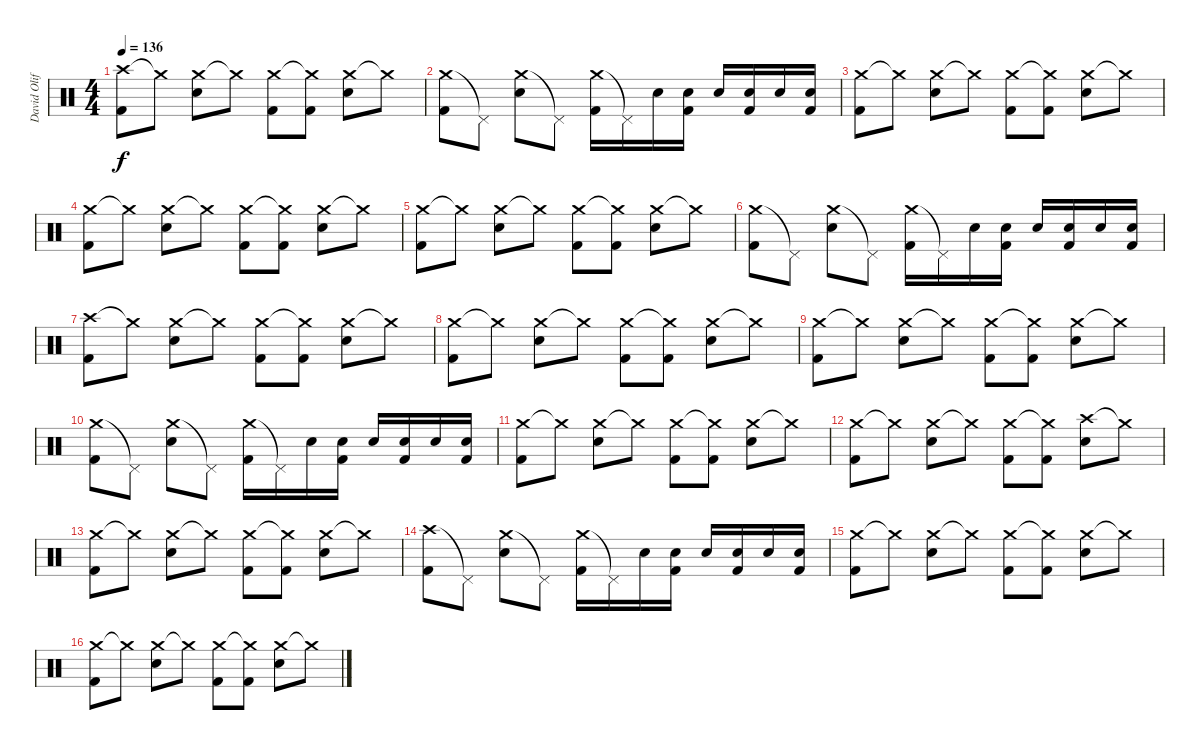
\track ("David Oliffe" "David Olif") {instrument percussion}
\staff {score}
\articulation defaults
\ts (4 4)
\tempo 136
\clef neutral
\ks c
("Crash high (hit)" "Kick (hit) 2").8{dy f} "Crash medium (hit)"{t}.8 ("Crash medium (hit)" "Electric Snare (hit)").8 "Crash medium (hit)"{t}.8 ("Crash medium (hit)" "Kick (hit) 2").8 ("Crash medium (hit)"{t} "Kick (hit) 2").8 ("Crash medium (hit)" "Electric Snare (hit)").8 "Crash medium (hit)"{t}.8 |
("Crash medium (hit)" "Kick (hit) 2").8 "Pedal Hi-Hat (hit)"{t}.8 ("Crash medium (hit)" "Electric Snare (hit)").8 "Pedal Hi-Hat (hit)"{t}.8 ("Crash medium (hit)" "Kick (hit) 2").16 "Pedal Hi-Hat (hit)"{t}.16 "Electric Snare (hit)".16 ("Electric Snare (hit)" "Kick (hit) 2").16 "Electric Snare (hit)".16 ("Electric Snare (hit)" "Kick (hit) 2").16 "Electric Snare (hit)".16 ("Electric Snare (hit)" "Kick (hit) 2").16 |
("Crash medium (hit)" "Kick (hit) 2").8{volume 12} "Crash medium (hit)"{t}.8 ("Crash medium (hit)" "Electric Snare (hit)").8 "Crash medium (hit)"{t}.8 ("Crash medium (hit)" "Kick (hit) 2").8 ("Crash medium (hit)"{t} "Kick (hit) 2").8 ("Crash medium (hit)" "Electric Snare (hit)").8 "Crash medium (hit)"{t}.8 |
("Crash medium (hit)" "Kick (hit) 2").8 "Crash medium (hit)"{t}.8 ("Crash medium (hit)" "Electric Snare (hit)").8 "Crash medium (hit)"{t}.8 ("Crash medium (hit)" "Kick (hit) 2").8 ("Crash medium (hit)"{t} "Kick (hit) 2").8 ("Crash medium (hit)" "Electric Snare (hit)").8 "Crash medium (hit)"{t}.8 |
("Crash medium (hit)" "Kick (hit) 2").8 "Crash medium (hit)"{t}.8 ("Crash medium (hit)" "Electric Snare (hit)").8 "Crash medium (hit)"{t}.8 ("Crash medium (hit)" "Kick (hit) 2").8 ("Crash medium (hit)"{t} "Kick (hit) 2").8 ("Crash medium (hit)" "Electric Snare (hit)").8 "Crash medium (hit)"{t}.8 |
("Crash medium (hit)" "Kick (hit) 2").8 "Pedal Hi-Hat (hit)"{t}.8 ("Crash medium (hit)" "Electric Snare (hit)").8 "Pedal Hi-Hat (hit)"{t}.8 ("Crash medium (hit)" "Kick (hit) 2").16 "Pedal Hi-Hat (hit)"{t}.16 "Electric Snare (hit)".16 ("Electric Snare (hit)" "Kick (hit) 2").16 "Electric Snare (hit)".16 ("Electric Snare (hit)" "Kick (hit) 2").16 "Electric Snare (hit)".16 ("Electric Snare (hit)" "Kick (hit) 2").16 |
("Crash high (hit)" "Kick (hit) 2").8{volume 10} "Crash medium (hit)"{t}.8 ("Crash medium (hit)" "Electric Snare (hit)").8 "Crash medium (hit)"{t}.8 ("Crash medium (hit)" "Kick (hit) 2").8 ("Crash medium (hit)"{t} "Kick (hit) 2").8 ("Crash medium (hit)" "Electric Snare (hit)").8 "Crash medium (hit)"{t}.8 |
("Crash medium (hit)" "Kick (hit) 2").8 "Crash medium (hit)"{t}.8 ("Crash medium (hit)" "Electric Snare (hit)").8 "Crash medium (hit)"{t}.8 ("Crash medium (hit)" "Kick (hit) 2").8 ("Crash medium (hit)"{t} "Kick (hit) 2").8 ("Crash medium (hit)" "Electric Snare (hit)").8 "Crash medium (hit)"{t}.8 |
("Crash medium (hit)" "Kick (hit) 2").8 "Crash medium (hit)"{t}.8 ("Crash medium (hit)" "Electric Snare (hit)").8 "Crash medium (hit)"{t}.8 ("Crash medium (hit)" "Kick (hit) 2").8 ("Crash medium (hit)"{t} "Kick (hit) 2").8 ("Crash medium (hit)" "Electric Snare (hit)").8 "Crash medium (hit)"{t}.8 |
("Crash medium (hit)" "Kick (hit) 2").8 "Pedal Hi-Hat (hit)"{t}.8 ("Crash medium (hit)" "Electric Snare (hit)").8 "Pedal Hi-Hat (hit)"{t}.8 ("Crash medium (hit)" "Kick (hit) 2").16 "Pedal Hi-Hat (hit)"{t}.16 "Electric Snare (hit)".16 ("Electric Snare (hit)" "Kick (hit) 2").16 "Electric Snare (hit)".16 ("Electric Snare (hit)" "Kick (hit) 2").16 "Electric Snare (hit)".16 ("Electric Snare (hit)" "Kick (hit) 2").16 |
("Crash medium (hit)" "Kick (hit) 2").8{volume 8} "Crash medium (hit)"{t}.8 ("Crash medium (hit)" "Electric Snare (hit)").8 "Crash medium (hit)"{t}.8 ("Crash medium (hit)" "Kick (hit) 2").8 ("Crash medium (hit)"{t} "Kick (hit) 2").8 ("Crash medium (hit)" "Electric Snare (hit)").8 "Crash medium (hit)"{t}.8 |
("Crash medium (hit)" "Kick (hit) 2").8 "Crash medium (hit)"{t}.8 ("Crash medium (hit)" "Electric Snare (hit)").8 "Crash medium (hit)"{t}.8 ("Crash medium (hit)" "Kick (hit) 2").8 ("Crash medium (hit)"{t} "Kick (hit) 2").8 ("Crash high (hit)" "Electric Snare (hit)").8 "Crash medium (hit)"{t}.8 |
("Crash medium (hit)" "Kick (hit) 2").8 "Crash medium (hit)"{t}.8 ("Crash medium (hit)" "Electric Snare (hit)").8 "Crash medium (hit)"{t}.8 ("Crash medium (hit)" "Kick (hit) 2").8 ("Crash medium (hit)"{t} "Kick (hit) 2").8 ("Crash medium (hit)" "Electric Snare (hit)").8 "Crash medium (hit)"{t}.8 |
("Crash high (hit)" "Kick (hit) 2").8 "Pedal Hi-Hat (hit)"{t}.8 ("Crash medium (hit)" "Electric Snare (hit)").8 "Pedal Hi-Hat (hit)"{t}.8 ("Crash medium (hit)" "Kick (hit) 2").16 "Pedal Hi-Hat (hit)"{t}.16 "Electric Snare (hit)".16 ("Electric Snare (hit)" "Kick (hit) 2").16 "Electric Snare (hit)".16 ("Electric Snare (hit)" "Kick (hit) 2").16 "Electric Snare (hit)".16 ("Electric Snare (hit)" "Kick (hit) 2").16 |
("Crash medium (hit)" "Kick (hit) 2").8{volume 5} "Crash medium (hit)"{t}.8 ("Crash medium (hit)" "Electric Snare (hit)").8 "Crash medium (hit)"{t}.8 ("Crash medium (hit)" "Kick (hit) 2").8 ("Crash medium (hit)"{t} "Kick (hit) 2").8 ("Crash medium (hit)" "Electric Snare (hit)").8 "Crash medium (hit)"{t}.8 |
("Crash medium (hit)" "Kick (hit) 2").8 "Crash medium (hit)"{t}.8 ("Crash medium (hit)" "Electric Snare (hit)").8 "Crash medium (hit)"{t}.8 ("Crash medium (hit)" "Kick (hit) 2").8 ("Crash medium (hit)"{t} "Kick (hit) 2").8 ("Crash medium (hit)" "Electric Snare (hit)").8 "Crash medium (hit)"{t}.8
